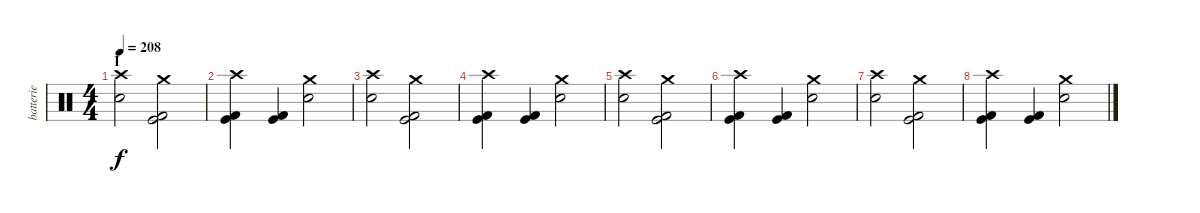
\track ("batterie" "batterie") {instrument percussion}
\staff {score}
\articulation defaults
\ts (4 4)
\section ("" "I")
\tempo 208
\clef neutral
\ks c
("Snare (hit) 2" "Crash high (hit)").2{dy f} ("Crash medium (hit)" "Kick (hit)" "Kick (hit) 2").2 |
("Crash high (hit)" "Kick (hit)" "Kick (hit) 2").4 ("Kick (hit)" "Kick (hit) 2").4 ("Crash medium (hit)" "Snare (hit) 2").2 |
("Snare (hit) 2" "Crash high (hit)").2 ("Crash medium (hit)" "Kick (hit)" "Kick (hit) 2").2 |
("Crash high (hit)" "Kick (hit)" "Kick (hit) 2").4 ("Kick (hit)" "Kick (hit) 2").4 ("Crash medium (hit)" "Snare (hit) 2").2 |
("Snare (hit) 2" "Crash high (hit)").2 ("Crash medium (hit)" "Kick (hit)" "Kick (hit) 2").2 |
("Crash high (hit)" "Kick (hit)" "Kick (hit) 2").4 ("Kick (hit)" "Kick (hit) 2").4 ("Crash medium (hit)" "Snare (hit) 2").2 |
("Snare (hit) 2" "Crash high (hit)").2 ("Crash medium (hit)" "Kick (hit)" "Kick (hit) 2").2 |
("Crash high (hit)" "Kick (hit)" "Kick (hit) 2").4 ("Kick (hit)" "Kick (hit) 2").4 ("Crash medium (hit)" "Snare (hit) 2").2
